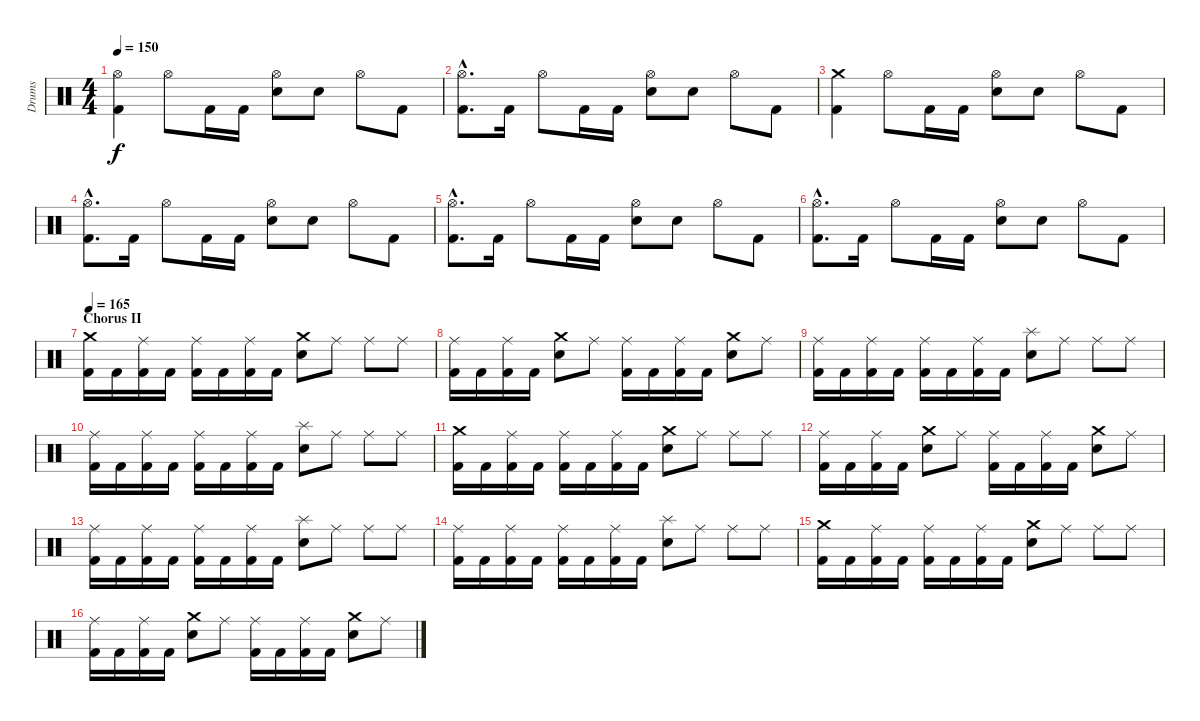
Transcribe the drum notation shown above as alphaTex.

\track ("Drums" "Drums") {instrument percussion}
\staff {score}
\articulation defaults
\ts (4 4)
\tempo 150
\clef neutral
\ks c
("Kick (hit) 2" "Hi-Hat (open)").4{dy f} "Hi-Hat (open)".8 "Kick (hit) 2".16 "Kick (hit) 2".16 ("Electric Snare (hit)" "Hi-Hat (open)").8 "Electric Snare (hit)".8 "Hi-Hat (open)".8 "Kick (hit) 2".8 |
("Kick (hit) 2"{hac} "Hi-Hat (open)"{hac}).8{d} "Kick (hit) 2".16 "Hi-Hat (open)".8 "Kick (hit) 2".16 "Kick (hit) 2".16 ("Electric Snare (hit)" "Hi-Hat (open)").8 "Electric Snare (hit)".8 "Hi-Hat (open)".8 "Kick (hit) 2".8 |
("Kick (hit) 2" "Crash medium (hit)").4 "Hi-Hat (open)".8 "Kick (hit) 2".16 "Kick (hit) 2".16 ("Electric Snare (hit)" "Hi-Hat (open)").8 "Electric Snare (hit)".8 "Hi-Hat (open)".8 "Kick (hit) 2".8 |
("Kick (hit) 2"{hac} "Hi-Hat (open)"{hac}).8{d} "Kick (hit) 2".16 "Hi-Hat (open)".8 "Kick (hit) 2".16 "Kick (hit) 2".16 ("Electric Snare (hit)" "Hi-Hat (open)").8 "Electric Snare (hit)".8 "Hi-Hat (open)".8 "Kick (hit) 2".8 |
("Kick (hit) 2"{hac} "Hi-Hat (open)"{hac}).8{d} "Kick (hit) 2".16 "Hi-Hat (open)".8 "Kick (hit) 2".16 "Kick (hit) 2".16 ("Electric Snare (hit)" "Hi-Hat (open)").8 "Electric Snare (hit)".8 "Hi-Hat (open)".8 "Kick (hit) 2".8 |
("Kick (hit) 2"{hac} "Hi-Hat (open)"{hac}).8{d} "Kick (hit) 2".16 "Hi-Hat (open)".8 "Kick (hit) 2".16 "Kick (hit) 2".16 ("Electric Snare (hit)" "Hi-Hat (open)").8 "Electric Snare (hit)".8 "Hi-Hat (open)".8 "Kick (hit) 2".8 |
\section ("" "Chorus II")
\tempo 165
("Kick (hit) 2" "Crash medium (hit)").16 "Kick (hit) 2".16 ("Kick (hit) 2" "Ride (middle)").16 "Kick (hit) 2".16 ("Kick (hit) 2" "Ride (middle)").16 "Kick (hit) 2".16 ("Kick (hit) 2" "Ride (middle)").16 "Kick (hit) 2".16 ("Electric Snare (hit)" "Crash medium (hit)").8 "Ride (middle)".8 "Ride (middle)".8 "Ride (middle)".8 |
("Kick (hit) 2" "Ride (middle)").16 "Kick (hit) 2".16 ("Kick (hit) 2" "Ride (middle)").16 "Kick (hit) 2".16 ("Electric Snare (hit)" "Crash medium (hit)").8 "Ride (middle)".8 ("Kick (hit) 2" "Ride (middle)").16 "Kick (hit) 2".16 ("Kick (hit) 2" "Ride (middle)").16 "Kick (hit) 2".16 ("Electric Snare (hit)" "Crash medium (hit)").8 "Ride (middle)".8 |
("Kick (hit) 2" "Ride (middle)").16 "Kick (hit) 2".16 ("Kick (hit) 2" "Ride (middle)").16 "Kick (hit) 2".16 ("Kick (hit) 2" "Ride (middle)").16 "Kick (hit) 2".16 ("Kick (hit) 2" "Ride (middle)").16 "Kick (hit) 2".16 ("Electric Snare (hit)" "Splash (hit)").8 "Ride (middle)".8 "Ride (middle)".8 "Ride (middle)".8 |
("Kick (hit) 2" "Ride (middle)").16 "Kick (hit) 2".16 ("Kick (hit) 2" "Ride (middle)").16 "Kick (hit) 2".16 ("Kick (hit) 2" "Ride (middle)").16 "Kick (hit) 2".16 ("Kick (hit) 2" "Ride (middle)").16 "Kick (hit) 2".16 ("Electric Snare (hit)" "Splash (hit)").8 "Ride (middle)".8 "Ride (middle)".8 "Ride (middle)".8 |
("Kick (hit) 2" "Crash medium (hit)").16 "Kick (hit) 2".16 ("Kick (hit) 2" "Ride (middle)").16 "Kick (hit) 2".16 ("Kick (hit) 2" "Ride (middle)").16 "Kick (hit) 2".16 ("Kick (hit) 2" "Ride (middle)").16 "Kick (hit) 2".16 ("Electric Snare (hit)" "Crash medium (hit)").8 "Ride (middle)".8 "Ride (middle)".8 "Ride (middle)".8 |
("Kick (hit) 2" "Ride (middle)").16 "Kick (hit) 2".16 ("Kick (hit) 2" "Ride (middle)").16 "Kick (hit) 2".16 ("Electric Snare (hit)" "Crash medium (hit)").8 "Ride (middle)".8 ("Kick (hit) 2" "Ride (middle)").16 "Kick (hit) 2".16 ("Kick (hit) 2" "Ride (middle)").16 "Kick (hit) 2".16 ("Electric Snare (hit)" "Crash medium (hit)").8 "Ride (middle)".8 |
("Kick (hit) 2" "Ride (middle)").16 "Kick (hit) 2".16 ("Kick (hit) 2" "Ride (middle)").16 "Kick (hit) 2".16 ("Kick (hit) 2" "Ride (middle)").16 "Kick (hit) 2".16 ("Kick (hit) 2" "Ride (middle)").16 "Kick (hit) 2".16 ("Electric Snare (hit)" "Splash (hit)").8 "Ride (middle)".8 "Ride (middle)".8 "Ride (middle)".8 |
("Kick (hit) 2" "Ride (middle)").16 "Kick (hit) 2".16 ("Kick (hit) 2" "Ride (middle)").16 "Kick (hit) 2".16 ("Kick (hit) 2" "Ride (middle)").16 "Kick (hit) 2".16 ("Kick (hit) 2" "Ride (middle)").16 "Kick (hit) 2".16 ("Electric Snare (hit)" "Splash (hit)").8 "Ride (middle)".8 "Ride (middle)".8 "Ride (middle)".8 |
("Kick (hit) 2" "Crash medium (hit)").16 "Kick (hit) 2".16 ("Kick (hit) 2" "Ride (middle)").16 "Kick (hit) 2".16 ("Kick (hit) 2" "Ride (middle)").16 "Kick (hit) 2".16 ("Kick (hit) 2" "Ride (middle)").16 "Kick (hit) 2".16 ("Electric Snare (hit)" "Crash medium (hit)").8 "Ride (middle)".8 "Ride (middle)".8 "Ride (middle)".8 |
("Kick (hit) 2" "Ride (middle)").16 "Kick (hit) 2".16 ("Kick (hit) 2" "Ride (middle)").16 "Kick (hit) 2".16 ("Electric Snare (hit)" "Crash medium (hit)").8 "Ride (middle)".8 ("Kick (hit) 2" "Ride (middle)").16 "Kick (hit) 2".16 ("Kick (hit) 2" "Ride (middle)").16 "Kick (hit) 2".16 ("Electric Snare (hit)" "Crash medium (hit)").8 "Ride (middle)".8
